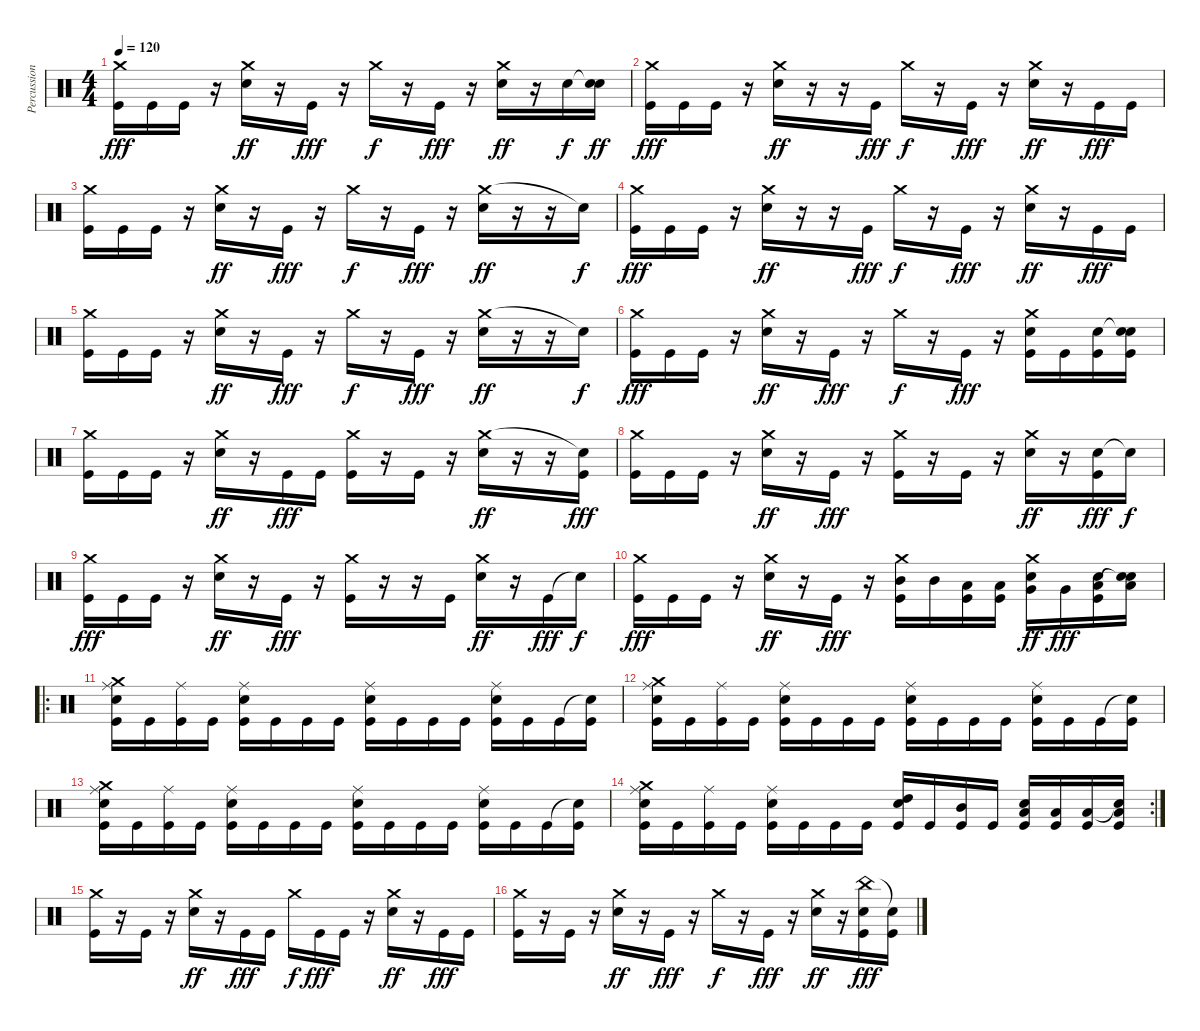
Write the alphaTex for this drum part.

\track ("Percussions" "Percussion") {instrument percussion}
\staff {score}
\articulation defaults
\ts (4 4)
\tempo 120
\clef neutral
\ks c
("Crash medium (hit)" "Kick (hit)").16{dy fff} "Kick (hit)".16 "Kick (hit)".16 r.16 ("Crash medium (hit)" "Electric Snare (hit)").16{dy ff} r.16 "Kick (hit)".16{dy fff} r.16 "Crash medium (hit)".16{dy f} r.16 "Kick (hit)".16{dy fff} r.16 ("Crash medium (hit)" "Electric Snare (hit)").16{dy ff} r.16 "Electric Snare (hit)".16{dy f} ("Snare (hit)"{t} "Electric Snare (hit)").16{dy ff} |
("Crash medium (hit)" "Kick (hit)").16{dy fff} "Kick (hit)".16 "Kick (hit)".16 r.16 ("Crash medium (hit)" "Electric Snare (hit)").16{dy ff} r.16 r.16 "Kick (hit)".16{dy fff} "Crash medium (hit)".16{dy f} r.16 "Kick (hit)".16{dy fff} r.16 ("Crash medium (hit)" "Electric Snare (hit)").16{dy ff} r.16 "Kick (hit)".16{dy fff} "Kick (hit)".16 |
("Crash medium (hit)" "Kick (hit)").16 "Kick (hit)".16 "Kick (hit)".16 r.16 ("Crash medium (hit)" "Electric Snare (hit)").16{dy ff} r.16 "Kick (hit)".16{dy fff} r.16 "Crash medium (hit)".16{dy f} r.16 "Kick (hit)".16{dy fff} r.16 ("Crash medium (hit)" "Electric Snare (hit)").16{dy ff} r.16 r.16 "Snare (hit)"{t}.16{dy f} |
("Crash medium (hit)" "Kick (hit)").16{dy fff} "Kick (hit)".16 "Kick (hit)".16 r.16 ("Crash medium (hit)" "Electric Snare (hit)").16{dy ff} r.16 r.16 "Kick (hit)".16{dy fff} "Crash medium (hit)".16{dy f} r.16 "Kick (hit)".16{dy fff} r.16 ("Crash medium (hit)" "Electric Snare (hit)").16{dy ff} r.16 "Kick (hit)".16{dy fff} "Kick (hit)".16 |
("Crash medium (hit)" "Kick (hit)").16 "Kick (hit)".16 "Kick (hit)".16 r.16 ("Crash medium (hit)" "Electric Snare (hit)").16{dy ff} r.16 "Kick (hit)".16{dy fff} r.16 "Crash medium (hit)".16{dy f} r.16 "Kick (hit)".16{dy fff} r.16 ("Crash medium (hit)" "Electric Snare (hit)").16{dy ff} r.16 r.16 "Snare (hit)"{t}.16{dy f} |
("Crash medium (hit)" "Kick (hit)").16{dy fff} "Kick (hit)".16 "Kick (hit)".16 r.16 ("Crash medium (hit)" "Electric Snare (hit)").16{dy ff} r.16 "Kick (hit)".16{dy fff} r.16 "Crash medium (hit)".16{dy f} r.16 "Kick (hit)".16{dy fff} r.16 ("Crash medium (hit)" "Electric Snare (hit)" "Kick (hit)").16 "Kick (hit)".16 ("Electric Snare (hit)" "Kick (hit)").16 ("Snare (hit)"{t} "Electric Snare (hit)" "Kick (hit)").16 |
("Crash medium (hit)" "Kick (hit)").16 "Kick (hit)".16 "Kick (hit)".16 r.16 ("Crash medium (hit)" "Electric Snare (hit)").16{dy ff} r.16 "Kick (hit)".16{dy fff} "Kick (hit)".16 ("Crash medium (hit)" "Kick (hit)").16 r.16 "Kick (hit)".16 r.16 ("Crash medium (hit)" "Electric Snare (hit)").16{dy ff} r.16 r.16 ("Snare (hit)"{t} "Kick (hit)").16{dy fff} |
("Crash medium (hit)" "Kick (hit)").16 "Kick (hit)".16 "Kick (hit)".16 r.16 ("Crash medium (hit)" "Electric Snare (hit)").16{dy ff} r.16 "Kick (hit)".16{dy fff} r.16 ("Crash medium (hit)" "Kick (hit)").16 r.16 "Kick (hit)".16 r.16 ("Crash medium (hit)" "Electric Snare (hit)").16{dy ff} r.16 ("Electric Snare (hit)" "Kick (hit)").16{dy fff} "Snare (hit)"{t}.16{dy f} |
("Crash medium (hit)" "Kick (hit)").16{dy fff} "Kick (hit)".16 "Kick (hit)".16 r.16 ("Crash medium (hit)" "Electric Snare (hit)").16{dy ff} r.16 "Kick (hit)".16{dy fff} r.16 ("Crash medium (hit)" "Kick (hit)").16 r.16 r.16 "Kick (hit)".16 ("Crash medium (hit)" "Electric Snare (hit)").16{dy ff} r.16 "Kick (hit)".16{dy fff} "Snare (hit)"{t}.16{dy f} |
("Crash medium (hit)" "Kick (hit)").16{dy fff} "Kick (hit)".16 "Kick (hit)".16 r.16 ("Crash medium (hit)" "Electric Snare (hit)").16{dy ff} r.16 "Kick (hit)".16{dy fff} r.16 ("Crash medium (hit)" "Mid Tom (hit)" "Kick (hit)").16 "Mid Tom (hit)".16 ("Low Tom (hit)" "Kick (hit)").16 ("Low Tom (hit)" "Kick (hit)").16 ("Crash medium (hit)" "Very Low Tom (hit)" "Electric Snare (hit)").16{dy ff} "Very Low Tom (hit)".16{dy fff} ("Low Floor Tom (hit)" "Electric Snare (hit)" "Kick (hit)").16 ("Snare (hit)"{t} "Low Floor Tom (hit)" "Electric Snare (hit)").16 |
\ro
("Ride (middle)" "Crash medium (hit)" "Snare (hit) 2" "Kick (hit)").16 "Kick (hit)".16 ("Ride (middle)" "Kick (hit)").16 "Kick (hit)".16 ("Ride (middle)" "Snare (hit) 2" "Kick (hit)").16 "Kick (hit)".16 "Kick (hit)".16 "Kick (hit)".16 ("Ride (middle)" "Snare (hit) 2" "Kick (hit)").16 "Kick (hit)".16 "Kick (hit)".16 "Kick (hit)".16 ("Ride (middle)" "Snare (hit) 2" "Kick (hit)").16 "Kick (hit)".16 "Kick (hit)".16 ("Snare (hit)"{t} "Kick (hit)").16 |
("Ride (middle)" "Crash medium (hit)" "Snare (hit) 2" "Kick (hit)").16 "Kick (hit)".16 ("Ride (middle)" "Kick (hit)").16 "Kick (hit)".16 ("Ride (middle)" "Snare (hit) 2" "Kick (hit)").16 "Kick (hit)".16 "Kick (hit)".16 "Kick (hit)".16 ("Ride (middle)" "Snare (hit) 2" "Kick (hit)").16 "Kick (hit)".16 "Kick (hit)".16 "Kick (hit)".16 ("Ride (middle)" "Snare (hit) 2" "Kick (hit)").16 "Kick (hit)".16 "Kick (hit)".16 ("Snare (hit)"{t} "Kick (hit)").16 |
("Ride (middle)" "Crash medium (hit)" "Snare (hit) 2" "Kick (hit)").16 "Kick (hit)".16 ("Ride (middle)" "Kick (hit)").16 "Kick (hit)".16 ("Ride (middle)" "Snare (hit) 2" "Kick (hit)").16 "Kick (hit)".16 "Kick (hit)".16 "Kick (hit)".16 ("Ride (middle)" "Snare (hit) 2" "Kick (hit)").16 "Kick (hit)".16 "Kick (hit)".16 "Kick (hit)".16 ("Ride (middle)" "Snare (hit) 2" "Kick (hit)").16 "Kick (hit)".16 "Kick (hit)".16 ("Snare (hit)"{t} "Kick (hit)").16 |
\rc 2
("Ride (middle)" "Crash medium (hit)" "Snare (hit) 2" "Kick (hit)").16 "Kick (hit)".16 ("Ride (middle)" "Kick (hit)").16 "Kick (hit)".16 ("Ride (middle)" "Snare (hit) 2" "Kick (hit)").16 "Kick (hit)".16 "Kick (hit)".16 "Kick (hit)".16 ("High Tom (hit)" "Snare (hit) 2" "Kick (hit)").16 "Kick (hit)".16 ("Mid Tom (hit)" "Kick (hit)").16 "Kick (hit)".16 ("Low Tom (hit)" "Snare (hit) 2" "Kick (hit)").16 ("Low Tom (hit)" "Kick (hit)").16 ("Low Floor Tom (hit)" "Kick (hit)").16 ("Snare (hit)"{t} "Low Floor Tom (hit)" "Kick (hit)").16 |
("Crash medium (hit)" "Kick (hit)").16 r.16 "Kick (hit)".16 r.16 ("Crash medium (hit)" "Electric Snare (hit)").16{dy ff} r.16 "Kick (hit)".16{dy fff} "Kick (hit)".16 "Crash medium (hit)".16{dy f} "Kick (hit)".16{dy fff} "Kick (hit)".16 r.16 ("Crash medium (hit)" "Electric Snare (hit)").16{dy ff} r.16 "Kick (hit)".16{dy fff} "Kick (hit)".16 |
("Crash medium (hit)" "Kick (hit)").16 r.16 "Kick (hit)".16 r.16 ("Crash medium (hit)" "Electric Snare (hit)").16{dy ff} r.16 "Kick (hit)".16{dy fff} r.16 "Crash medium (hit)".16{dy f} r.16 "Kick (hit)".16{dy fff} r.16 ("Crash medium (hit)" "Electric Snare (hit)").16{dy ff} r.16 ("China (hit)" "Electric Snare (hit)" "Kick (hit)").16{dy fff} ("Snare (hit)"{t} "Kick (hit)").16
